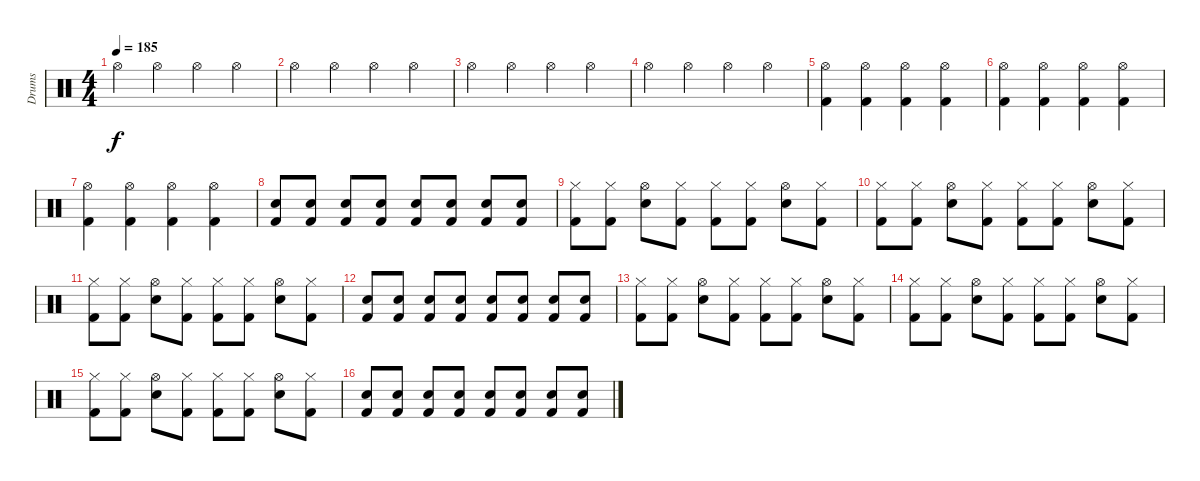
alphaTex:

\track ("Drums" "Drums") {instrument percussion}
\staff {score}
\articulation defaults
\ts (4 4)
\tempo 185
\clef neutral
\ks c "Hi-Hat (open)".4{dy f} "Hi-Hat (open)".4 "Hi-Hat (open)".4 "Hi-Hat (open)".4
|
"Hi-Hat (open)".4 "Hi-Hat (open)".4 "Hi-Hat (open)".4 "Hi-Hat (open)".4 |
"Hi-Hat (open)".4 "Hi-Hat (open)".4 "Hi-Hat (open)".4 "Hi-Hat (open)".4 |
"Hi-Hat (open)".4 "Hi-Hat (open)".4 "Hi-Hat (open)".4 "Hi-Hat (open)".4 |
("Hi-Hat (open)" "Kick (hit) 2").4 ("Hi-Hat (open)" "Kick (hit) 2").4 ("Hi-Hat (open)" "Kick (hit) 2").4 ("Hi-Hat (open)" "Kick (hit) 2").4 |
("Hi-Hat (open)" "Kick (hit) 2").4 ("Hi-Hat (open)" "Kick (hit) 2").4 ("Hi-Hat (open)" "Kick (hit) 2").4 ("Hi-Hat (open)" "Kick (hit) 2").4 |
("Hi-Hat (open)" "Kick (hit) 2").4 ("Hi-Hat (open)" "Kick (hit) 2").4 ("Hi-Hat (open)" "Kick (hit) 2").4 ("Hi-Hat (open)" "Kick (hit) 2").4 |
("Snare (hit) 2" "Kick (hit) 2").8 ("Snare (hit) 2" "Kick (hit) 2").8 ("Snare (hit) 2" "Kick (hit) 2").8 ("Snare (hit) 2" "Kick (hit) 2").8 ("Snare (hit) 2" "Kick (hit) 2").8 ("Snare (hit) 2" "Kick (hit) 2").8 ("Snare (hit) 2" "Kick (hit) 2").8 ("Snare (hit) 2" "Kick (hit) 2").8 |
("Hi-Hat (closed)" "Kick (hit) 2").8 ("Hi-Hat (closed)" "Kick (hit) 2").8 ("Hi-Hat (open)" "Snare (hit) 2").8 ("Hi-Hat (closed)" "Kick (hit) 2").8 ("Hi-Hat (closed)" "Kick (hit) 2").8 ("Hi-Hat (closed)" "Kick (hit) 2").8 ("Hi-Hat (open)" "Snare (hit) 2").8 ("Hi-Hat (closed)" "Kick (hit) 2").8 |
("Hi-Hat (closed)" "Kick (hit) 2").8 ("Hi-Hat (closed)" "Kick (hit) 2").8 ("Hi-Hat (open)" "Snare (hit) 2").8 ("Hi-Hat (closed)" "Kick (hit) 2").8 ("Hi-Hat (closed)" "Kick (hit) 2").8 ("Hi-Hat (closed)" "Kick (hit) 2").8 ("Hi-Hat (open)" "Snare (hit) 2").8 ("Hi-Hat (closed)" "Kick (hit) 2").8 |
("Hi-Hat (closed)" "Kick (hit) 2").8 ("Hi-Hat (closed)" "Kick (hit) 2").8 ("Hi-Hat (open)" "Snare (hit) 2").8 ("Hi-Hat (closed)" "Kick (hit) 2").8 ("Hi-Hat (closed)" "Kick (hit) 2").8 ("Hi-Hat (closed)" "Kick (hit) 2").8 ("Hi-Hat (open)" "Snare (hit) 2").8 ("Hi-Hat (closed)" "Kick (hit) 2").8 |
("Snare (hit) 2" "Kick (hit) 2").8 ("Snare (hit) 2" "Kick (hit) 2").8 ("Snare (hit) 2" "Kick (hit) 2").8 ("Snare (hit) 2" "Kick (hit) 2").8 ("Snare (hit) 2" "Kick (hit) 2").8 ("Snare (hit) 2" "Kick (hit) 2").8 ("Snare (hit) 2" "Kick (hit) 2").8 ("Snare (hit) 2" "Kick (hit) 2").8 |
("Hi-Hat (closed)" "Kick (hit) 2").8 ("Hi-Hat (closed)" "Kick (hit) 2").8 ("Hi-Hat (open)" "Snare (hit) 2").8 ("Hi-Hat (closed)" "Kick (hit) 2").8 ("Hi-Hat (closed)" "Kick (hit) 2").8 ("Hi-Hat (closed)" "Kick (hit) 2").8 ("Hi-Hat (open)" "Snare (hit) 2").8 ("Hi-Hat (closed)" "Kick (hit) 2").8 |
("Hi-Hat (closed)" "Kick (hit) 2").8 ("Hi-Hat (closed)" "Kick (hit) 2").8 ("Hi-Hat (open)" "Snare (hit) 2").8 ("Hi-Hat (closed)" "Kick (hit) 2").8 ("Hi-Hat (closed)" "Kick (hit) 2").8 ("Hi-Hat (closed)" "Kick (hit) 2").8 ("Hi-Hat (open)" "Snare (hit) 2").8 ("Hi-Hat (closed)" "Kick (hit) 2").8 |
("Hi-Hat (closed)" "Kick (hit) 2").8 ("Hi-Hat (closed)" "Kick (hit) 2").8 ("Hi-Hat (open)" "Snare (hit) 2").8 ("Hi-Hat (closed)" "Kick (hit) 2").8 ("Hi-Hat (closed)" "Kick (hit) 2").8 ("Hi-Hat (closed)" "Kick (hit) 2").8 ("Hi-Hat (open)" "Snare (hit) 2").8 ("Hi-Hat (closed)" "Kick (hit) 2").8 |
("Snare (hit) 2" "Kick (hit) 2").8 ("Snare (hit) 2" "Kick (hit) 2").8 ("Snare (hit) 2" "Kick (hit) 2").8 ("Snare (hit) 2" "Kick (hit) 2").8 ("Snare (hit) 2" "Kick (hit) 2").8 ("Snare (hit) 2" "Kick (hit) 2").8 ("Snare (hit) 2" "Kick (hit) 2").8 ("Snare (hit) 2" "Kick (hit) 2").8
